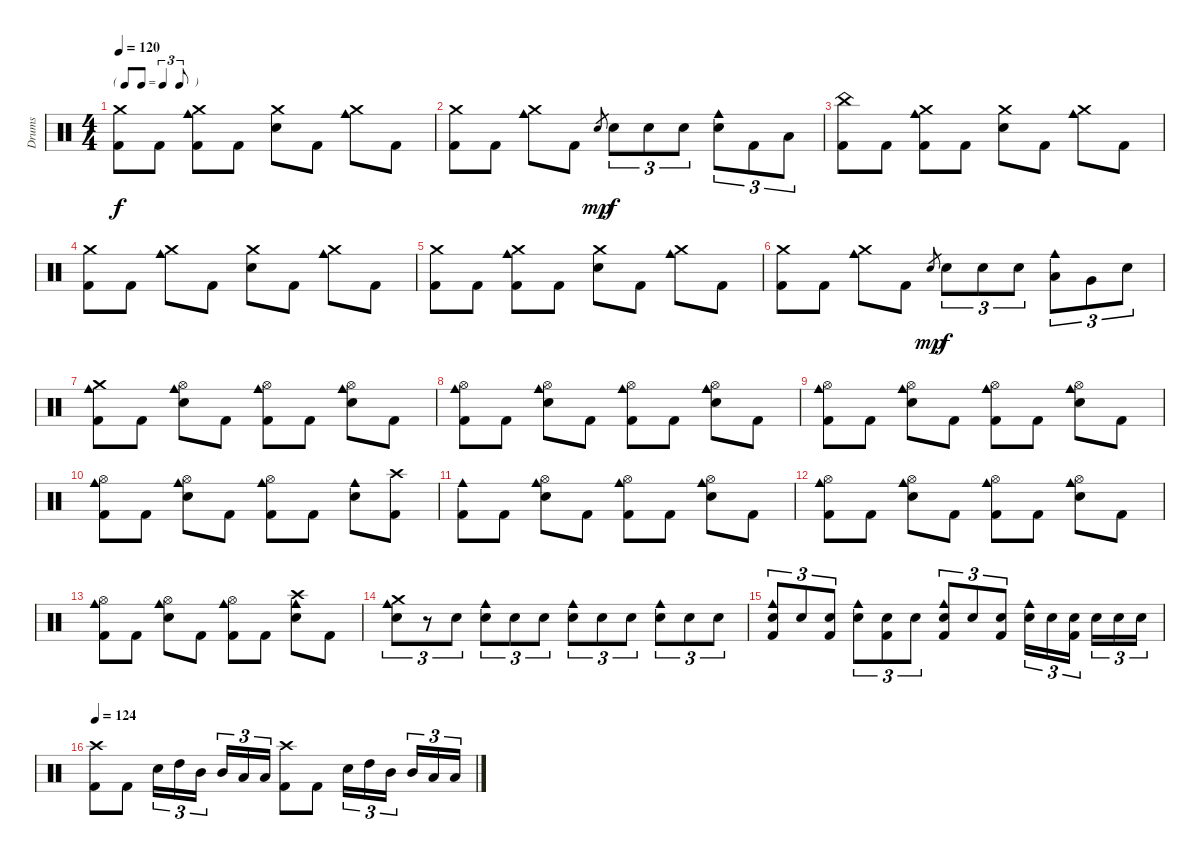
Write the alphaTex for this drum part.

\track ("Drums" "Drums") {instrument percussion}
\staff {score}
\articulation defaults
\ts (4 4)
\tf triplet8th
\tempo 120
\clef neutral
\ks c
("Crash medium (hit)" "Kick (hit) 2").8{dy f} "Kick (hit) 2".8 ("Crash medium (hit)" "Cowbell medium (hit)" "Kick (hit) 2").8 "Kick (hit) 2".8 ("Crash medium (hit)" "Electric Snare (hit)").8 "Kick (hit) 2".8 ("Crash medium (hit)" "Cowbell medium (hit)").8 "Kick (hit) 2".8 |
("Crash medium (hit)" "Kick (hit) 2").8 "Kick (hit) 2".8 ("Crash medium (hit)" "Cowbell medium (hit)").8 "Kick (hit) 2".8 "Electric Snare (hit)".8{gr dy mp} "Electric Snare (hit)".8{tu (3 2) dy f} "Electric Snare (hit)".8{tu (3 2)} "Electric Snare (hit)".8{tu (3 2)} ("Cowbell medium (hit)" "Electric Snare (hit)").8{tu (3 2)} "Kick (hit) 2".8{tu (3 2)} "Low Tom (hit)".8{tu (3 2)} |
("China (hit)" "Kick (hit) 2").8 "Kick (hit) 2".8 ("Crash medium (hit)" "Cowbell medium (hit)" "Kick (hit) 2").8 "Kick (hit) 2".8 ("Crash medium (hit)" "Electric Snare (hit)").8 "Kick (hit) 2".8 ("Crash medium (hit)" "Cowbell medium (hit)").8 "Kick (hit) 2".8 |
("Crash medium (hit)" "Kick (hit) 2").8 "Kick (hit) 2".8 ("Crash medium (hit)" "Cowbell medium (hit)").8 "Kick (hit) 2".8 ("Crash medium (hit)" "Electric Snare (hit)").8 "Kick (hit) 2".8 ("Crash medium (hit)" "Cowbell medium (hit)").8 "Kick (hit) 2".8 |
("Crash medium (hit)" "Kick (hit) 2").8 "Kick (hit) 2".8 ("Crash medium (hit)" "Cowbell medium (hit)" "Kick (hit) 2").8 "Kick (hit) 2".8 ("Crash medium (hit)" "Electric Snare (hit)").8 "Kick (hit) 2".8 ("Crash medium (hit)" "Cowbell medium (hit)").8 "Kick (hit) 2".8 |
("Crash medium (hit)" "Kick (hit) 2").8 "Kick (hit) 2".8 ("Crash medium (hit)" "Cowbell medium (hit)").8 "Kick (hit) 2".8 "Electric Snare (hit)".8{gr dy mp} "Electric Snare (hit)".8{tu (3 2) dy f} "Electric Snare (hit)".8{tu (3 2)} "Electric Snare (hit)".8{tu (3 2)} ("Cowbell medium (hit)" "Low Tom (hit)").8{tu (3 2)} "Very Low Tom (hit)".8{tu (3 2)} "Electric Snare (hit)".8{tu (3 2)} |
("Crash medium (hit)" "Cowbell medium (hit)" "Kick (hit) 2").8 "Kick (hit) 2".8 ("Hi-Hat (open)" "Cowbell medium (hit)" "Electric Snare (hit)").8 "Kick (hit) 2".8 ("Hi-Hat (open)" "Cowbell medium (hit)" "Kick (hit) 2").8 "Kick (hit) 2".8 ("Hi-Hat (open)" "Cowbell medium (hit)" "Electric Snare (hit)").8 "Kick (hit) 2".8 |
("Hi-Hat (open)" "Cowbell medium (hit)" "Kick (hit) 2").8 "Kick (hit) 2".8 ("Hi-Hat (open)" "Cowbell medium (hit)" "Electric Snare (hit)").8 "Kick (hit) 2".8 ("Hi-Hat (open)" "Cowbell medium (hit)" "Kick (hit) 2").8 "Kick (hit) 2".8 ("Hi-Hat (open)" "Cowbell medium (hit)" "Electric Snare (hit)").8 "Kick (hit) 2".8 |
("Hi-Hat (open)" "Cowbell medium (hit)" "Kick (hit) 2").8 "Kick (hit) 2".8 ("Hi-Hat (open)" "Cowbell medium (hit)" "Electric Snare (hit)").8 "Kick (hit) 2".8 ("Hi-Hat (open)" "Cowbell medium (hit)" "Kick (hit) 2").8 "Kick (hit) 2".8 ("Hi-Hat (open)" "Cowbell medium (hit)" "Electric Snare (hit)").8 "Kick (hit) 2".8 |
("Hi-Hat (open)" "Cowbell medium (hit)" "Kick (hit) 2").8 "Kick (hit) 2".8 ("Hi-Hat (open)" "Cowbell medium (hit)" "Electric Snare (hit)").8 "Kick (hit) 2".8 ("Hi-Hat (open)" "Cowbell medium (hit)" "Kick (hit) 2").8 "Kick (hit) 2".8 ("Cowbell medium (hit)" "Electric Snare (hit)").8 ("Crash high (hit)" "Kick (hit) 2").8 |
("Cowbell medium (hit)" "Kick (hit) 2").8 "Kick (hit) 2".8 ("Hi-Hat (open)" "Cowbell medium (hit)" "Electric Snare (hit)").8 "Kick (hit) 2".8 ("Hi-Hat (open)" "Cowbell medium (hit)" "Kick (hit) 2").8 "Kick (hit) 2".8 ("Hi-Hat (open)" "Cowbell medium (hit)" "Electric Snare (hit)").8 "Kick (hit) 2".8 |
("Hi-Hat (open)" "Cowbell medium (hit)" "Kick (hit) 2").8 "Kick (hit) 2".8 ("Hi-Hat (open)" "Cowbell medium (hit)" "Electric Snare (hit)").8 "Kick (hit) 2".8 ("Hi-Hat (open)" "Cowbell medium (hit)" "Kick (hit) 2").8 "Kick (hit) 2".8 ("Hi-Hat (open)" "Cowbell medium (hit)" "Electric Snare (hit)").8 "Kick (hit) 2".8 |
("Hi-Hat (open)" "Cowbell medium (hit)" "Kick (hit) 2").8 "Kick (hit) 2".8 ("Hi-Hat (open)" "Cowbell medium (hit)" "Electric Snare (hit)").8 "Kick (hit) 2".8 ("Hi-Hat (open)" "Cowbell medium (hit)" "Kick (hit) 2").8 "Kick (hit) 2".8 ("Crash high (hit)" "Cowbell medium (hit)" "Electric Snare (hit)").8 "Kick (hit) 2".8 |
("Crash medium (hit)" "Cowbell medium (hit)" "Electric Snare (hit)").8{tu (3 2)} r.8{tu (3 2)} "Electric Snare (hit)".8{tu (3 2)} ("Cowbell medium (hit)" "Electric Snare (hit)").8{tu (3 2)} "Electric Snare (hit)".8{tu (3 2)} "Electric Snare (hit)".8{tu (3 2)} ("Cowbell medium (hit)" "Electric Snare (hit)").8{tu (3 2)} "Electric Snare (hit)".8{tu (3 2)} "Electric Snare (hit)".8{tu (3 2)} ("Cowbell medium (hit)" "Electric Snare (hit)").8{tu (3 2)} "Electric Snare (hit)".8{tu (3 2)} "Electric Snare (hit)".8{tu (3 2)} |
("Cowbell medium (hit)" "Electric Snare (hit)" "Kick (hit) 2").8{tu (3 2)} "Electric Snare (hit)".8{tu (3 2)} ("Electric Snare (hit)" "Kick (hit) 2").8{tu (3 2)} ("Cowbell medium (hit)" "Electric Snare (hit)").8{tu (3 2)} ("Electric Snare (hit)" "Kick (hit) 2").8{tu (3 2)} "Electric Snare (hit)".8{tu (3 2)} ("Cowbell medium (hit)" "Electric Snare (hit)" "Kick (hit) 2").8{tu (3 2)} "Electric Snare (hit)".8{tu (3 2)} ("Electric Snare (hit)" "Kick (hit) 2").8{tu (3 2)} ("Cowbell medium (hit)" "Electric Snare (hit)").16{tu (3 2)} "Electric Snare (hit)".16{tu (3 2)} ("Electric Snare (hit)" "Kick (hit) 2").16{tu (3 2) beam splitsecondary} "Electric Snare (hit)".16{tu (3 2)} "Electric Snare (hit)".16{tu (3 2)} "Electric Snare (hit)".16{tu (3 2)} |
\tempo 124
("Crash high (hit)" "Kick (hit) 2").8 "Kick (hit) 2".8 "Electric Snare (hit)".16{tu (3 2)} "High Tom (hit)".16{tu (3 2)} "Mid Tom (hit)".16{tu (3 2) beam splitsecondary} "Mid Tom (hit)".16{tu (3 2)} "Low Tom (hit)".16{tu (3 2)} "Low Tom (hit)".16{tu (3 2)} ("Crash high (hit)" "Kick (hit) 2").8 "Kick (hit) 2".8 "Electric Snare (hit)".16{tu (3 2)} "High Tom (hit)".16{tu (3 2)} "Mid Tom (hit)".16{tu (3 2) beam splitsecondary} "Mid Tom (hit)".16{tu (3 2)} "Low Tom (hit)".16{tu (3 2)} "Low Tom (hit)".16{tu (3 2)}
